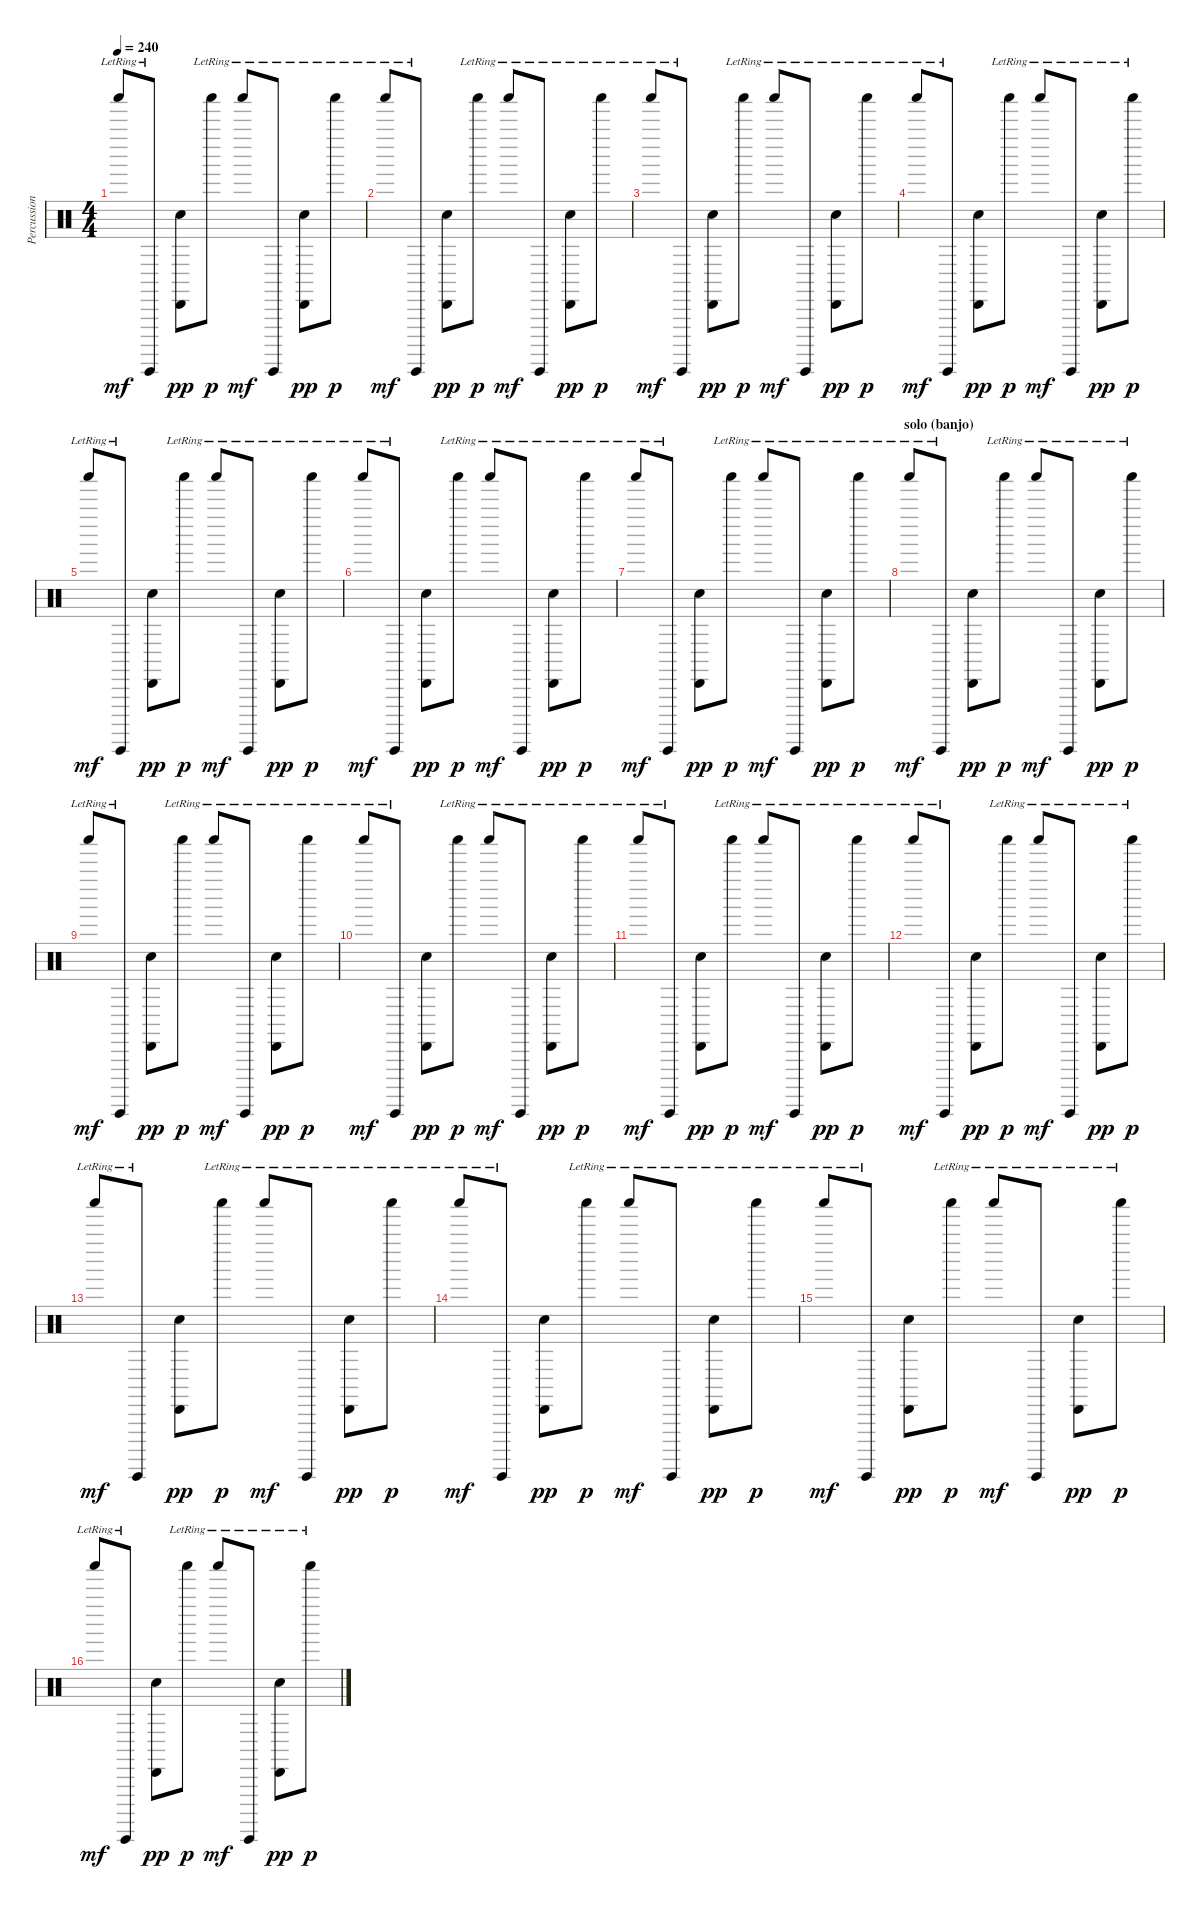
\track ("Percussions" "Percussion") {instrument percussion}
\staff {score}
\articulation defaults
\ts (4 4)
\tempo 240
\clef neutral
\ks c "Shaker (hit)"{lr}.8{dy mf} "Guiro (hit)"{lr}.8
("Cabasa (hit)" "Snare (hit) 2").8{dy pp} "Shaker (hit)"{lr}.8{dy p} "Shaker (hit)"{lr}.8{dy mf} "Guiro (hit)"{lr}.8 ("Cabasa (hit)"{lr} "Snare (hit) 2").8{dy pp} "Shaker (hit)"{lr}.8{dy p} |
"Shaker (hit)"{lr}.8{dy mf} "Guiro (hit)"{lr}.8 ("Cabasa (hit)" "Snare (hit) 2").8{dy pp} "Shaker (hit)"{lr}.8{dy p} "Shaker (hit)"{lr}.8{dy mf} "Guiro (hit)"{lr}.8 ("Cabasa (hit)"{lr} "Snare (hit) 2").8{dy pp} "Shaker (hit)"{lr}.8{dy p} |
"Shaker (hit)"{lr}.8{dy mf} "Guiro (hit)"{lr}.8 ("Cabasa (hit)" "Snare (hit) 2").8{dy pp} "Shaker (hit)"{lr}.8{dy p} "Shaker (hit)"{lr}.8{dy mf} "Guiro (hit)"{lr}.8 ("Cabasa (hit)"{lr} "Snare (hit) 2").8{dy pp} "Shaker (hit)"{lr}.8{dy p} |
"Shaker (hit)"{lr}.8{dy mf} "Guiro (hit)"{lr}.8 ("Cabasa (hit)" "Snare (hit) 2").8{dy pp} "Shaker (hit)"{lr}.8{dy p} "Shaker (hit)"{lr}.8{dy mf} "Guiro (hit)"{lr}.8 ("Cabasa (hit)"{lr} "Snare (hit) 2").8{dy pp} "Shaker (hit)"{lr}.8{dy p} |
"Shaker (hit)"{lr}.8{dy mf} "Guiro (hit)"{lr}.8 ("Cabasa (hit)" "Snare (hit) 2").8{dy pp} "Shaker (hit)"{lr}.8{dy p} "Shaker (hit)"{lr}.8{dy mf} "Guiro (hit)"{lr}.8 ("Cabasa (hit)"{lr} "Snare (hit) 2").8{dy pp} "Shaker (hit)"{lr}.8{dy p} |
"Shaker (hit)"{lr}.8{dy mf} "Guiro (hit)"{lr}.8 ("Cabasa (hit)" "Snare (hit) 2").8{dy pp} "Shaker (hit)"{lr}.8{dy p} "Shaker (hit)"{lr}.8{dy mf} "Guiro (hit)"{lr}.8 ("Cabasa (hit)"{lr} "Snare (hit) 2").8{dy pp} "Shaker (hit)"{lr}.8{dy p} |
"Shaker (hit)"{lr}.8{dy mf} "Guiro (hit)"{lr}.8 ("Cabasa (hit)" "Snare (hit) 2").8{dy pp} "Shaker (hit)"{lr}.8{dy p} "Shaker (hit)"{lr}.8{dy mf} "Guiro (hit)"{lr}.8 ("Cabasa (hit)"{lr} "Snare (hit) 2").8{dy pp} "Shaker (hit)"{lr}.8{dy p} |
\section ("" "solo (banjo)")
"Shaker (hit)"{lr}.8{dy mf} "Guiro (hit)"{lr}.8 ("Cabasa (hit)" "Snare (hit) 2").8{dy pp} "Shaker (hit)"{lr}.8{dy p} "Shaker (hit)"{lr}.8{dy mf} "Guiro (hit)"{lr}.8 ("Cabasa (hit)"{lr} "Snare (hit) 2").8{dy pp} "Shaker (hit)"{lr}.8{dy p} |
"Shaker (hit)"{lr}.8{dy mf} "Guiro (hit)"{lr}.8 ("Cabasa (hit)" "Snare (hit) 2").8{dy pp} "Shaker (hit)"{lr}.8{dy p} "Shaker (hit)"{lr}.8{dy mf} "Guiro (hit)"{lr}.8 ("Cabasa (hit)"{lr} "Snare (hit) 2").8{dy pp} "Shaker (hit)"{lr}.8{dy p} |
"Shaker (hit)"{lr}.8{dy mf} "Guiro (hit)"{lr}.8 ("Cabasa (hit)" "Snare (hit) 2").8{dy pp} "Shaker (hit)"{lr}.8{dy p} "Shaker (hit)"{lr}.8{dy mf} "Guiro (hit)"{lr}.8 ("Cabasa (hit)"{lr} "Snare (hit) 2").8{dy pp} "Shaker (hit)"{lr}.8{dy p} |
"Shaker (hit)"{lr}.8{dy mf} "Guiro (hit)"{lr}.8 ("Cabasa (hit)" "Snare (hit) 2").8{dy pp} "Shaker (hit)"{lr}.8{dy p} "Shaker (hit)"{lr}.8{dy mf} "Guiro (hit)"{lr}.8 ("Cabasa (hit)"{lr} "Snare (hit) 2").8{dy pp} "Shaker (hit)"{lr}.8{dy p} |
"Shaker (hit)"{lr}.8{dy mf} "Guiro (hit)"{lr}.8 ("Cabasa (hit)" "Snare (hit) 2").8{dy pp} "Shaker (hit)"{lr}.8{dy p} "Shaker (hit)"{lr}.8{dy mf} "Guiro (hit)"{lr}.8 ("Cabasa (hit)"{lr} "Snare (hit) 2").8{dy pp} "Shaker (hit)"{lr}.8{dy p} |
"Shaker (hit)"{lr}.8{dy mf} "Guiro (hit)"{lr}.8 ("Cabasa (hit)" "Snare (hit) 2").8{dy pp} "Shaker (hit)"{lr}.8{dy p} "Shaker (hit)"{lr}.8{dy mf} "Guiro (hit)"{lr}.8 ("Cabasa (hit)"{lr} "Snare (hit) 2").8{dy pp} "Shaker (hit)"{lr}.8{dy p} |
"Shaker (hit)"{lr}.8{dy mf} "Guiro (hit)"{lr}.8 ("Cabasa (hit)" "Snare (hit) 2").8{dy pp} "Shaker (hit)"{lr}.8{dy p} "Shaker (hit)"{lr}.8{dy mf} "Guiro (hit)"{lr}.8 ("Cabasa (hit)"{lr} "Snare (hit) 2").8{dy pp} "Shaker (hit)"{lr}.8{dy p} |
"Shaker (hit)"{lr}.8{dy mf} "Guiro (hit)"{lr}.8 ("Cabasa (hit)" "Snare (hit) 2").8{dy pp} "Shaker (hit)"{lr}.8{dy p} "Shaker (hit)"{lr}.8{dy mf} "Guiro (hit)"{lr}.8 ("Cabasa (hit)"{lr} "Snare (hit) 2").8{dy pp} "Shaker (hit)"{lr}.8{dy p} |
"Shaker (hit)"{lr}.8{dy mf} "Guiro (hit)"{lr}.8 ("Cabasa (hit)" "Snare (hit) 2").8{dy pp} "Shaker (hit)"{lr}.8{dy p} "Shaker (hit)"{lr}.8{dy mf} "Guiro (hit)"{lr}.8 ("Cabasa (hit)"{lr} "Snare (hit) 2").8{dy pp} "Shaker (hit)"{lr}.8{dy p}
